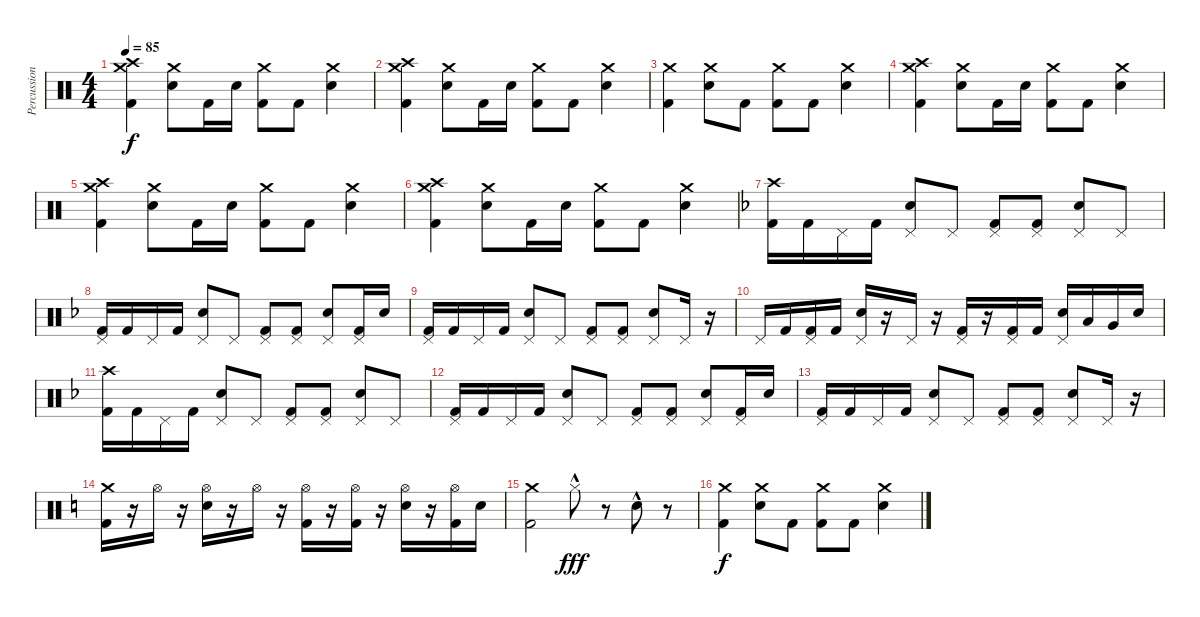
\track ("Percussions" "Percussion") {instrument percussion}
\staff {score}
\articulation defaults
\ts (4 4)
\tempo 85
\clef neutral
\ks c
("Crash high (hit)" "Kick (hit) 2" "Crash medium (hit)").4{dy f} ("Electric Snare (hit)" "Crash medium (hit)").8 "Kick (hit) 2".16 "Electric Snare (hit)".16 ("Kick (hit) 2" "Crash medium (hit)").8 "Kick (hit) 2".8 ("Electric Snare (hit)" "Crash medium (hit)").4 |
("Crash high (hit)" "Kick (hit) 2" "Crash medium (hit)").4 ("Electric Snare (hit)" "Crash medium (hit)").8 "Kick (hit) 2".16 "Electric Snare (hit)".16 ("Kick (hit) 2" "Crash medium (hit)").8 "Kick (hit) 2".8 ("Electric Snare (hit)" "Crash medium (hit)").4 |
("Kick (hit) 2" "Crash medium (hit)").4 ("Electric Snare (hit)" "Crash medium (hit)").8 "Kick (hit) 2".8 ("Kick (hit) 2" "Crash medium (hit)").8 "Kick (hit) 2".8 ("Electric Snare (hit)" "Crash medium (hit)").4 |
("Crash high (hit)" "Kick (hit) 2" "Crash medium (hit)").4 ("Electric Snare (hit)" "Crash medium (hit)").8 "Kick (hit) 2".16 "Electric Snare (hit)".16 ("Kick (hit) 2" "Crash medium (hit)").8 "Kick (hit) 2".8 ("Electric Snare (hit)" "Crash medium (hit)").4 |
("Crash high (hit)" "Kick (hit) 2" "Crash medium (hit)").4 ("Electric Snare (hit)" "Crash medium (hit)").8 "Kick (hit) 2".16 "Electric Snare (hit)".16 ("Kick (hit) 2" "Crash medium (hit)").8 "Kick (hit) 2".8 ("Electric Snare (hit)" "Crash medium (hit)").4 |
("Crash high (hit)" "Kick (hit) 2" "Crash medium (hit)").4 ("Electric Snare (hit)" "Crash medium (hit)").8 "Kick (hit) 2".16 "Electric Snare (hit)".16 ("Kick (hit) 2" "Crash medium (hit)").8 "Kick (hit) 2".8 ("Electric Snare (hit)" "Crash medium (hit)").4 |
\ks f
("Kick (hit) 2" "Crash high (hit)").16 "Kick (hit) 2".16 "Pedal Hi-Hat (hit)".16 "Kick (hit) 2".16 ("Electric Snare (hit)" "Pedal Hi-Hat (hit)").8 "Pedal Hi-Hat (hit)".8 ("Kick (hit) 2" "Pedal Hi-Hat (hit)").8 ("Kick (hit) 2" "Pedal Hi-Hat (hit)").8 ("Electric Snare (hit)" "Pedal Hi-Hat (hit)").8 "Pedal Hi-Hat (hit)".8 |
("Kick (hit) 2" "Pedal Hi-Hat (hit)").16 "Kick (hit) 2".16 "Pedal Hi-Hat (hit)".16 "Kick (hit) 2".16 ("Electric Snare (hit)" "Pedal Hi-Hat (hit)").8 "Pedal Hi-Hat (hit)".8 ("Kick (hit) 2" "Pedal Hi-Hat (hit)").8 ("Kick (hit) 2" "Pedal Hi-Hat (hit)").8 ("Electric Snare (hit)" "Pedal Hi-Hat (hit)").8 ("Kick (hit) 2" "Pedal Hi-Hat (hit)").16 "Electric Snare (hit)".16 |
("Kick (hit) 2" "Pedal Hi-Hat (hit)").16 "Kick (hit) 2".16 "Pedal Hi-Hat (hit)".16 "Kick (hit) 2".16 ("Electric Snare (hit)" "Pedal Hi-Hat (hit)").8 "Pedal Hi-Hat (hit)".8 ("Kick (hit) 2" "Pedal Hi-Hat (hit)").8 ("Kick (hit) 2" "Pedal Hi-Hat (hit)").8 ("Electric Snare (hit)" "Pedal Hi-Hat (hit)").8 "Pedal Hi-Hat (hit)".16 r.16 |
"Pedal Hi-Hat (hit)".16 "Kick (hit) 2".16 ("Kick (hit) 2" "Pedal Hi-Hat (hit)").16 "Kick (hit) 2".16 ("Electric Snare (hit)" "Pedal Hi-Hat (hit)").16 r.16 "Pedal Hi-Hat (hit)".16 r.16 ("Kick (hit) 2" "Pedal Hi-Hat (hit)").16 r.16 ("Kick (hit) 2" "Pedal Hi-Hat (hit)").16 "Kick (hit) 2".16 ("Electric Snare (hit)" "Pedal Hi-Hat (hit)").16 "Low Tom (hit)".16 "Very Low Tom (hit)".16 "Electric Snare (hit)".16 |
("Kick (hit) 2" "Crash high (hit)").16 "Kick (hit) 2".16 "Pedal Hi-Hat (hit)".16 "Kick (hit) 2".16 ("Electric Snare (hit)" "Pedal Hi-Hat (hit)").8 "Pedal Hi-Hat (hit)".8 ("Kick (hit) 2" "Pedal Hi-Hat (hit)").8 ("Kick (hit) 2" "Pedal Hi-Hat (hit)").8 ("Electric Snare (hit)" "Pedal Hi-Hat (hit)").8 "Pedal Hi-Hat (hit)".8 |
("Kick (hit) 2" "Pedal Hi-Hat (hit)").16 "Kick (hit) 2".16 "Pedal Hi-Hat (hit)".16 "Kick (hit) 2".16 ("Electric Snare (hit)" "Pedal Hi-Hat (hit)").8 "Pedal Hi-Hat (hit)".8 ("Kick (hit) 2" "Pedal Hi-Hat (hit)").8 ("Kick (hit) 2" "Pedal Hi-Hat (hit)").8 ("Electric Snare (hit)" "Pedal Hi-Hat (hit)").8 ("Kick (hit) 2" "Pedal Hi-Hat (hit)").16 "Electric Snare (hit)".16 |
("Kick (hit) 2" "Pedal Hi-Hat (hit)").16 "Kick (hit) 2".16 "Pedal Hi-Hat (hit)".16 "Kick (hit) 2".16 ("Electric Snare (hit)" "Pedal Hi-Hat (hit)").8 "Pedal Hi-Hat (hit)".8 ("Kick (hit) 2" "Pedal Hi-Hat (hit)").8 ("Kick (hit) 2" "Pedal Hi-Hat (hit)").8 ("Electric Snare (hit)" "Pedal Hi-Hat (hit)").8 "Pedal Hi-Hat (hit)".16 r.16 |
\ks c
("Kick (hit) 2" "Crash medium (hit)").16 r.16 "Hi-Hat (open)".16 r.16 ("Electric Snare (hit)" "Hi-Hat (open)").16 r.16 "Hi-Hat (open)".16 r.16 ("Kick (hit) 2" "Hi-Hat (open)").16 r.16 ("Kick (hit) 2" "Hi-Hat (open)").16 r.16 ("Electric Snare (hit)" "Hi-Hat (open)").16 r.16 ("Kick (hit) 2" "Hi-Hat (open)").16 "Electric Snare (hit)".16 |
("Kick (hit) 2" "Crash medium (hit)").2 "Hi-Hat (closed)"{hac}.8{dy fff} r.8 "Electric Snare (hit)"{hac}.8 r.8 |
("Kick (hit) 2" "Crash medium (hit)").4{dy f} ("Electric Snare (hit)" "Crash medium (hit)").8 "Kick (hit) 2".8 ("Kick (hit) 2" "Crash medium (hit)").8 "Kick (hit) 2".8 ("Electric Snare (hit)" "Crash medium (hit)").4
